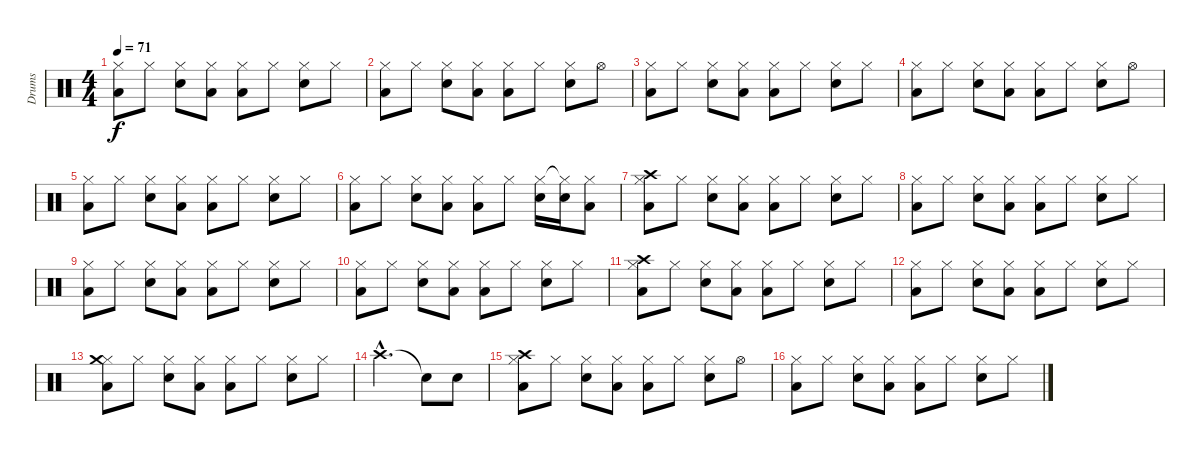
\track ("Drums" "Drums") {instrument percussion}
\staff {score}
\articulation defaults
\ts (4 4)
\tempo 71
\clef neutral
\ks c
("Hi-Hat (closed)" "Low Tom (hit)").8{dy f} "Hi-Hat (closed)".8 ("Hi-Hat (closed)" "Snare (hit) 2").8 ("Hi-Hat (closed)" "Low Tom (hit)").8 ("Hi-Hat (closed)" "Low Tom (hit)").8 "Hi-Hat (closed)".8 ("Hi-Hat (closed)" "Snare (hit) 2").8 "Hi-Hat (closed)".8 |
("Hi-Hat (closed)" "Low Tom (hit)").8 "Hi-Hat (closed)".8 ("Hi-Hat (closed)" "Snare (hit) 2").8 ("Hi-Hat (closed)" "Low Tom (hit)").8 ("Hi-Hat (closed)" "Low Tom (hit)").8 "Hi-Hat (closed)".8 ("Hi-Hat (closed)" "Snare (hit) 2").8 "Hi-Hat (open)".8 |
("Hi-Hat (closed)" "Low Tom (hit)").8 "Hi-Hat (closed)".8 ("Hi-Hat (closed)" "Snare (hit) 2").8 ("Hi-Hat (closed)" "Low Tom (hit)").8 ("Hi-Hat (closed)" "Low Tom (hit)").8 "Hi-Hat (closed)".8 ("Hi-Hat (closed)" "Snare (hit) 2").8 "Hi-Hat (closed)".8 |
("Hi-Hat (closed)" "Low Tom (hit)").8 "Hi-Hat (closed)".8 ("Hi-Hat (closed)" "Snare (hit) 2").8 ("Hi-Hat (closed)" "Low Tom (hit)").8 ("Hi-Hat (closed)" "Low Tom (hit)").8 "Hi-Hat (closed)".8 ("Hi-Hat (closed)" "Snare (hit) 2").8 "Hi-Hat (open)".8 |
("Hi-Hat (closed)" "Low Tom (hit)").8 "Hi-Hat (closed)".8 ("Hi-Hat (closed)" "Snare (hit) 2").8 ("Hi-Hat (closed)" "Low Tom (hit)").8 ("Hi-Hat (closed)" "Low Tom (hit)").8 "Hi-Hat (closed)".8 ("Hi-Hat (closed)" "Snare (hit) 2").8 "Hi-Hat (closed)".8 |
("Hi-Hat (closed)" "Low Tom (hit)").8 "Hi-Hat (closed)".8 ("Hi-Hat (closed)" "Snare (hit) 2").8 ("Hi-Hat (closed)" "Low Tom (hit)").8 ("Hi-Hat (closed)" "Low Tom (hit)").8 "Hi-Hat (closed)".8 ("Hi-Hat (closed)" "Snare (hit) 2").16 ("Hi-Hat (closed)"{t} "Snare (hit) 2").16 ("Hi-Hat (closed)" "Low Tom (hit)").8 |
("Hi-Hat (closed)" "Low Tom (hit)" "Crash high (hit)").8 "Hi-Hat (closed)".8 ("Hi-Hat (closed)" "Snare (hit) 2").8 ("Hi-Hat (closed)" "Low Tom (hit)").8 ("Hi-Hat (closed)" "Low Tom (hit)").8 "Hi-Hat (closed)".8 ("Hi-Hat (closed)" "Snare (hit) 2").8 "Hi-Hat (closed)".8 |
("Hi-Hat (closed)" "Low Tom (hit)").8 "Hi-Hat (closed)".8 ("Hi-Hat (closed)" "Snare (hit) 2").8 ("Hi-Hat (closed)" "Low Tom (hit)").8 ("Hi-Hat (closed)" "Low Tom (hit)").8 "Hi-Hat (closed)".8 ("Hi-Hat (closed)" "Snare (hit) 2").8 "Hi-Hat (closed)".8 |
("Hi-Hat (closed)" "Low Tom (hit)").8 "Hi-Hat (closed)".8 ("Hi-Hat (closed)" "Snare (hit) 2").8 ("Hi-Hat (closed)" "Low Tom (hit)").8 ("Hi-Hat (closed)" "Low Tom (hit)").8 "Hi-Hat (closed)".8 ("Hi-Hat (closed)" "Snare (hit) 2").8 "Hi-Hat (closed)".8 |
("Hi-Hat (closed)" "Low Tom (hit)").8 "Hi-Hat (closed)".8 ("Hi-Hat (closed)" "Snare (hit) 2").8 ("Hi-Hat (closed)" "Low Tom (hit)").8 ("Hi-Hat (closed)" "Low Tom (hit)").8 "Hi-Hat (closed)".8 ("Hi-Hat (closed)" "Snare (hit) 2").8 "Hi-Hat (closed)".8 |
("Hi-Hat (closed)" "Low Tom (hit)" "Crash high (hit)").8 "Hi-Hat (closed)".8 ("Hi-Hat (closed)" "Snare (hit) 2").8 ("Hi-Hat (closed)" "Low Tom (hit)").8 ("Hi-Hat (closed)" "Low Tom (hit)").8 "Hi-Hat (closed)".8 ("Hi-Hat (closed)" "Snare (hit) 2").8 "Hi-Hat (closed)".8 |
("Hi-Hat (closed)" "Low Tom (hit)").8 "Hi-Hat (closed)".8 ("Hi-Hat (closed)" "Snare (hit) 2").8 ("Hi-Hat (closed)" "Low Tom (hit)").8 ("Hi-Hat (closed)" "Low Tom (hit)").8 "Hi-Hat (closed)".8 ("Hi-Hat (closed)" "Snare (hit) 2").8 "Hi-Hat (closed)".8 |
("Hi-Hat (closed)" "Low Tom (hit)" "Crash medium (hit)").8 "Hi-Hat (closed)".8 ("Hi-Hat (closed)" "Snare (hit) 2").8 ("Hi-Hat (closed)" "Low Tom (hit)").8 ("Hi-Hat (closed)" "Low Tom (hit)").8 "Hi-Hat (closed)".8 ("Hi-Hat (closed)" "Snare (hit) 2").8 "Hi-Hat (closed)".8 |
"Crash high (hit)"{hac}.2{d} "Snare (hit)"{t}.8 "Snare (hit) 2".8 |
("Hi-Hat (closed)" "Low Tom (hit)" "Crash high (hit)").8 "Hi-Hat (closed)".8 ("Hi-Hat (closed)" "Snare (hit) 2").8 ("Hi-Hat (closed)" "Low Tom (hit)").8 ("Hi-Hat (closed)" "Low Tom (hit)").8 "Hi-Hat (closed)".8 ("Hi-Hat (closed)" "Snare (hit) 2").8 "Hi-Hat (open)".8 |
("Hi-Hat (closed)" "Low Tom (hit)").8 "Hi-Hat (closed)".8 ("Hi-Hat (closed)" "Snare (hit) 2").8 ("Hi-Hat (closed)" "Low Tom (hit)").8 ("Hi-Hat (closed)" "Low Tom (hit)").8 "Hi-Hat (closed)".8 ("Hi-Hat (closed)" "Snare (hit) 2").8 "Hi-Hat (closed)".8
